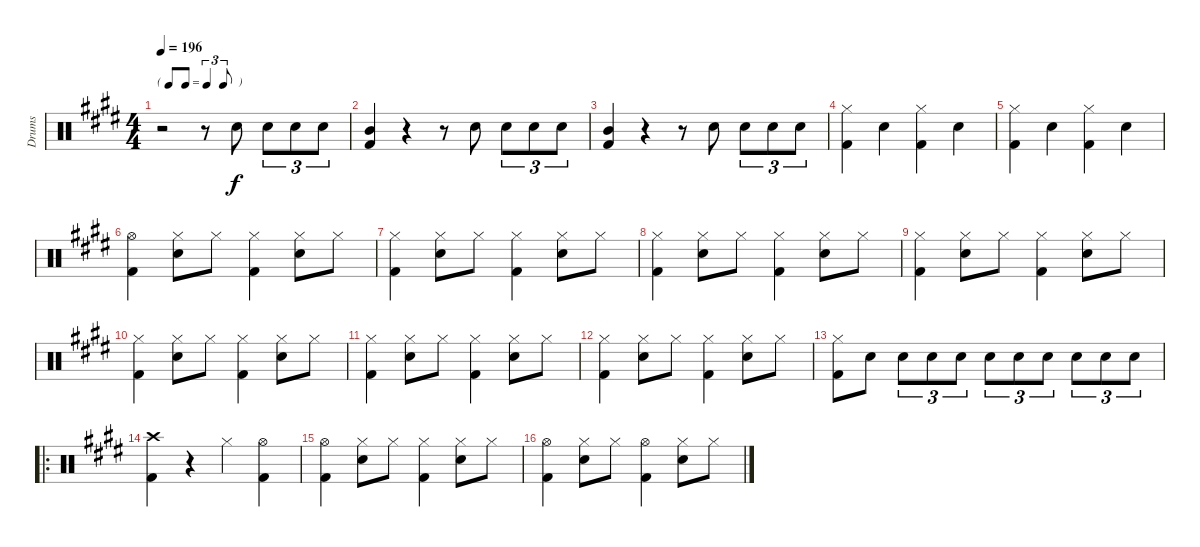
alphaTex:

\track ("Drums" "Drums") {instrument percussion}
\staff {score}
\articulation defaults
\ts (4 4)
\tf triplet8th
\tempo 196
\clef neutral
\ks e
r.2{dy f} r.8 "Snare (hit) 2".8 "Snare (hit) 2".8{tu (3 2)} "Snare (hit) 2".8{tu (3 2)} "Snare (hit) 2".8{tu (3 2)} |
("Mid Tom (hit)" "Kick (hit) 2").4 r.4 r.8 "Snare (hit) 2".8 "Snare (hit) 2".8{tu (3 2)} "Snare (hit) 2".8{tu (3 2)} "Snare (hit) 2".8{tu (3 2)} |
("Mid Tom (hit)" "Kick (hit) 2").4 r.4 r.8 "Snare (hit) 2".8 "Snare (hit) 2".8{tu (3 2)} "Snare (hit) 2".8{tu (3 2)} "Snare (hit) 2".8{tu (3 2)} |
("Hi-Hat (closed)" "Kick (hit) 2").4 "Snare (hit) 2".4 ("Hi-Hat (closed)" "Kick (hit) 2").4 "Snare (hit) 2".4 |
("Hi-Hat (closed)" "Kick (hit) 2").4 "Snare (hit) 2".4 ("Hi-Hat (closed)" "Kick (hit) 2").4 "Snare (hit) 2".4 |
("Hi-Hat (open)" "Kick (hit) 2").4 ("Hi-Hat (closed)" "Snare (hit) 2").8 "Hi-Hat (closed)".8 ("Hi-Hat (closed)" "Kick (hit) 2").4 ("Hi-Hat (closed)" "Snare (hit) 2").8 "Hi-Hat (closed)".8 |
("Hi-Hat (closed)" "Kick (hit) 2").4 ("Hi-Hat (closed)" "Snare (hit) 2").8 "Hi-Hat (closed)".8 ("Hi-Hat (closed)" "Kick (hit) 2").4 ("Hi-Hat (closed)" "Snare (hit) 2").8 "Hi-Hat (closed)".8 |
("Hi-Hat (closed)" "Kick (hit) 2").4 ("Hi-Hat (closed)" "Snare (hit) 2").8 "Hi-Hat (closed)".8 ("Hi-Hat (closed)" "Kick (hit) 2").4 ("Hi-Hat (closed)" "Snare (hit) 2").8 "Hi-Hat (closed)".8 |
("Hi-Hat (closed)" "Kick (hit) 2").4 ("Hi-Hat (closed)" "Snare (hit) 2").8 "Hi-Hat (closed)".8 ("Hi-Hat (closed)" "Kick (hit) 2").4 ("Hi-Hat (closed)" "Snare (hit) 2").8 "Hi-Hat (closed)".8 |
("Hi-Hat (closed)" "Kick (hit) 2").4 ("Hi-Hat (closed)" "Snare (hit) 2").8 "Hi-Hat (closed)".8 ("Hi-Hat (closed)" "Kick (hit) 2").4 ("Hi-Hat (closed)" "Snare (hit) 2").8 "Hi-Hat (closed)".8 |
("Hi-Hat (closed)" "Kick (hit) 2").4 ("Hi-Hat (closed)" "Snare (hit) 2").8 "Hi-Hat (closed)".8 ("Hi-Hat (closed)" "Kick (hit) 2").4 ("Hi-Hat (closed)" "Snare (hit) 2").8 "Hi-Hat (closed)".8 |
("Hi-Hat (closed)" "Kick (hit) 2").4 ("Hi-Hat (closed)" "Snare (hit) 2").8 "Hi-Hat (closed)".8 ("Hi-Hat (closed)" "Kick (hit) 2").4 ("Hi-Hat (closed)" "Snare (hit) 2").8 "Hi-Hat (closed)".8 |
("Hi-Hat (closed)" "Kick (hit) 2").8 "Snare (hit) 2".8 "Snare (hit) 2".8{tu (3 2)} "Snare (hit) 2".8{tu (3 2)} "Snare (hit) 2".8{tu (3 2)} "Snare (hit) 2".8{tu (3 2)} "Snare (hit) 2".8{tu (3 2)} "Snare (hit) 2".8{tu (3 2)} "Snare (hit) 2".8{tu (3 2)} "Snare (hit) 2".8{tu (3 2)} "Snare (hit) 2".8{tu (3 2)} |
\ro
("Crash high (hit)" "Kick (hit) 2").4 r.4 "Hi-Hat (closed)".4 ("Hi-Hat (open)" "Kick (hit) 2").4 |
("Hi-Hat (open)" "Kick (hit) 2").4 ("Hi-Hat (closed)" "Snare (hit) 2").8 "Hi-Hat (closed)".8 ("Hi-Hat (closed)" "Kick (hit) 2").4 ("Hi-Hat (closed)" "Snare (hit) 2").8 "Hi-Hat (closed)".8 |
("Hi-Hat (open)" "Kick (hit) 2").4 ("Hi-Hat (closed)" "Snare (hit) 2").8 "Hi-Hat (closed)".8 ("Hi-Hat (open)" "Kick (hit) 2").4 ("Hi-Hat (closed)" "Snare (hit) 2").8 "Hi-Hat (closed)".8
